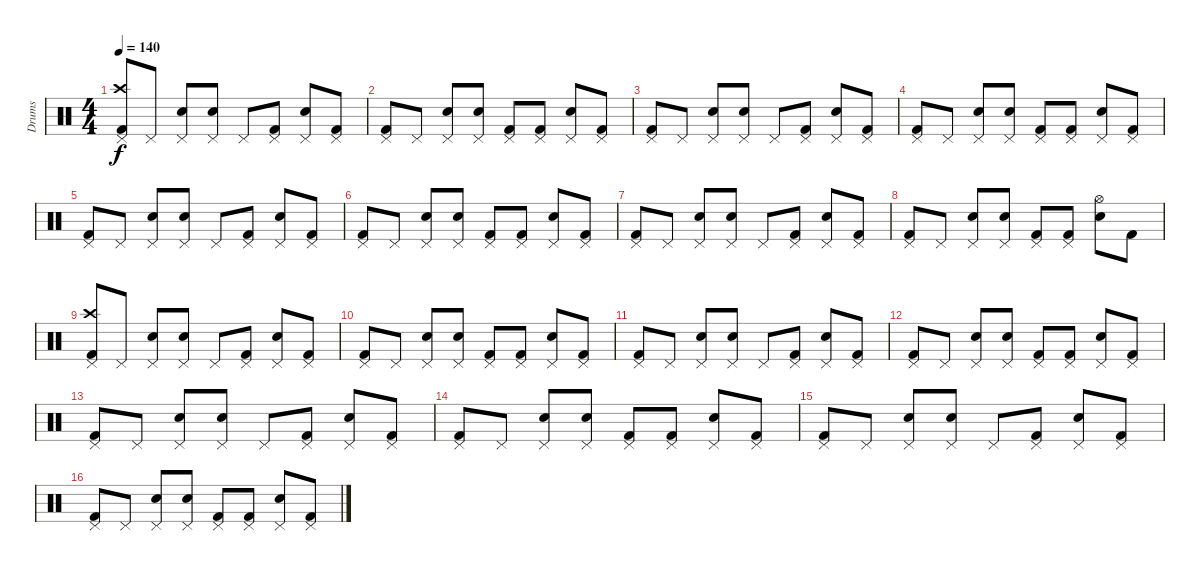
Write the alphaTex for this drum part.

\track ("Drums" "Drums") {instrument percussion}
\staff {score}
\articulation defaults
\ts (4 4)
\tempo 140
\clef neutral
\ks c
("Pedal Hi-Hat (hit)" "Crash high (hit)" "Kick (hit) 2").8{dy f} "Pedal Hi-Hat (hit)".8 ("Pedal Hi-Hat (hit)" "Electric Snare (hit)").8 ("Pedal Hi-Hat (hit)" "Electric Snare (hit)").8 "Pedal Hi-Hat (hit)".8 ("Pedal Hi-Hat (hit)" "Kick (hit) 2").8 ("Pedal Hi-Hat (hit)" "Electric Snare (hit)").8 ("Pedal Hi-Hat (hit)" "Kick (hit) 2").8 |
("Pedal Hi-Hat (hit)" "Kick (hit) 2").8 "Pedal Hi-Hat (hit)".8 ("Pedal Hi-Hat (hit)" "Electric Snare (hit)").8 ("Pedal Hi-Hat (hit)" "Electric Snare (hit)").8 ("Pedal Hi-Hat (hit)" "Kick (hit) 2").8 ("Pedal Hi-Hat (hit)" "Kick (hit) 2").8 ("Pedal Hi-Hat (hit)" "Electric Snare (hit)").8 ("Pedal Hi-Hat (hit)" "Kick (hit) 2").8 |
("Pedal Hi-Hat (hit)" "Kick (hit) 2").8 "Pedal Hi-Hat (hit)".8 ("Pedal Hi-Hat (hit)" "Electric Snare (hit)").8 ("Pedal Hi-Hat (hit)" "Electric Snare (hit)").8 "Pedal Hi-Hat (hit)".8 ("Pedal Hi-Hat (hit)" "Kick (hit) 2").8 ("Pedal Hi-Hat (hit)" "Electric Snare (hit)").8 ("Pedal Hi-Hat (hit)" "Kick (hit) 2").8 |
("Pedal Hi-Hat (hit)" "Kick (hit) 2").8 "Pedal Hi-Hat (hit)".8 ("Pedal Hi-Hat (hit)" "Electric Snare (hit)").8 ("Pedal Hi-Hat (hit)" "Electric Snare (hit)").8 ("Pedal Hi-Hat (hit)" "Kick (hit) 2").8 ("Pedal Hi-Hat (hit)" "Kick (hit) 2").8 ("Pedal Hi-Hat (hit)" "Electric Snare (hit)").8 ("Pedal Hi-Hat (hit)" "Kick (hit) 2").8 |
("Pedal Hi-Hat (hit)" "Kick (hit) 2").8 "Pedal Hi-Hat (hit)".8 ("Pedal Hi-Hat (hit)" "Electric Snare (hit)").8 ("Pedal Hi-Hat (hit)" "Electric Snare (hit)").8 "Pedal Hi-Hat (hit)".8 ("Pedal Hi-Hat (hit)" "Kick (hit) 2").8 ("Pedal Hi-Hat (hit)" "Electric Snare (hit)").8 ("Pedal Hi-Hat (hit)" "Kick (hit) 2").8 |
("Pedal Hi-Hat (hit)" "Kick (hit) 2").8 "Pedal Hi-Hat (hit)".8 ("Pedal Hi-Hat (hit)" "Electric Snare (hit)").8 ("Pedal Hi-Hat (hit)" "Electric Snare (hit)").8 ("Pedal Hi-Hat (hit)" "Kick (hit) 2").8 ("Pedal Hi-Hat (hit)" "Kick (hit) 2").8 ("Pedal Hi-Hat (hit)" "Electric Snare (hit)").8 ("Pedal Hi-Hat (hit)" "Kick (hit) 2").8 |
("Pedal Hi-Hat (hit)" "Kick (hit) 2").8 "Pedal Hi-Hat (hit)".8 ("Pedal Hi-Hat (hit)" "Electric Snare (hit)").8 ("Pedal Hi-Hat (hit)" "Electric Snare (hit)").8 "Pedal Hi-Hat (hit)".8 ("Pedal Hi-Hat (hit)" "Kick (hit) 2").8 ("Pedal Hi-Hat (hit)" "Electric Snare (hit)").8 ("Pedal Hi-Hat (hit)" "Kick (hit) 2").8 |
("Pedal Hi-Hat (hit)" "Kick (hit) 2").8 "Pedal Hi-Hat (hit)".8 ("Pedal Hi-Hat (hit)" "Electric Snare (hit)").8 ("Pedal Hi-Hat (hit)" "Electric Snare (hit)").8 ("Pedal Hi-Hat (hit)" "Kick (hit) 2").8 ("Pedal Hi-Hat (hit)" "Kick (hit) 2").8 ("Hi-Hat (open)" "Electric Snare (hit)").8 "Kick (hit) 2".8 |
("Pedal Hi-Hat (hit)" "Crash high (hit)" "Kick (hit) 2").8 "Pedal Hi-Hat (hit)".8 ("Pedal Hi-Hat (hit)" "Electric Snare (hit)").8 ("Pedal Hi-Hat (hit)" "Electric Snare (hit)").8 "Pedal Hi-Hat (hit)".8 ("Pedal Hi-Hat (hit)" "Kick (hit) 2").8 ("Pedal Hi-Hat (hit)" "Electric Snare (hit)").8 ("Pedal Hi-Hat (hit)" "Kick (hit) 2").8 |
("Pedal Hi-Hat (hit)" "Kick (hit) 2").8 "Pedal Hi-Hat (hit)".8 ("Pedal Hi-Hat (hit)" "Electric Snare (hit)").8 ("Pedal Hi-Hat (hit)" "Electric Snare (hit)").8 ("Pedal Hi-Hat (hit)" "Kick (hit) 2").8 ("Pedal Hi-Hat (hit)" "Kick (hit) 2").8 ("Pedal Hi-Hat (hit)" "Electric Snare (hit)").8 ("Pedal Hi-Hat (hit)" "Kick (hit) 2").8 |
("Pedal Hi-Hat (hit)" "Kick (hit) 2").8 "Pedal Hi-Hat (hit)".8 ("Pedal Hi-Hat (hit)" "Electric Snare (hit)").8 ("Pedal Hi-Hat (hit)" "Electric Snare (hit)").8 "Pedal Hi-Hat (hit)".8 ("Pedal Hi-Hat (hit)" "Kick (hit) 2").8 ("Pedal Hi-Hat (hit)" "Electric Snare (hit)").8 ("Pedal Hi-Hat (hit)" "Kick (hit) 2").8 |
("Pedal Hi-Hat (hit)" "Kick (hit) 2").8 "Pedal Hi-Hat (hit)".8 ("Pedal Hi-Hat (hit)" "Electric Snare (hit)").8 ("Pedal Hi-Hat (hit)" "Electric Snare (hit)").8 ("Pedal Hi-Hat (hit)" "Kick (hit) 2").8 ("Pedal Hi-Hat (hit)" "Kick (hit) 2").8 ("Pedal Hi-Hat (hit)" "Electric Snare (hit)").8 ("Pedal Hi-Hat (hit)" "Kick (hit) 2").8 |
("Pedal Hi-Hat (hit)" "Kick (hit) 2").8 "Pedal Hi-Hat (hit)".8 ("Pedal Hi-Hat (hit)" "Electric Snare (hit)").8 ("Pedal Hi-Hat (hit)" "Electric Snare (hit)").8 "Pedal Hi-Hat (hit)".8 ("Pedal Hi-Hat (hit)" "Kick (hit) 2").8 ("Pedal Hi-Hat (hit)" "Electric Snare (hit)").8 ("Pedal Hi-Hat (hit)" "Kick (hit) 2").8 |
("Pedal Hi-Hat (hit)" "Kick (hit) 2").8 "Pedal Hi-Hat (hit)".8 ("Pedal Hi-Hat (hit)" "Electric Snare (hit)").8 ("Pedal Hi-Hat (hit)" "Electric Snare (hit)").8 ("Pedal Hi-Hat (hit)" "Kick (hit) 2").8 ("Pedal Hi-Hat (hit)" "Kick (hit) 2").8 ("Pedal Hi-Hat (hit)" "Electric Snare (hit)").8 ("Pedal Hi-Hat (hit)" "Kick (hit) 2").8 |
("Pedal Hi-Hat (hit)" "Kick (hit) 2").8 "Pedal Hi-Hat (hit)".8 ("Pedal Hi-Hat (hit)" "Electric Snare (hit)").8 ("Pedal Hi-Hat (hit)" "Electric Snare (hit)").8 "Pedal Hi-Hat (hit)".8 ("Pedal Hi-Hat (hit)" "Kick (hit) 2").8 ("Pedal Hi-Hat (hit)" "Electric Snare (hit)").8 ("Pedal Hi-Hat (hit)" "Kick (hit) 2").8 |
("Pedal Hi-Hat (hit)" "Kick (hit) 2").8 "Pedal Hi-Hat (hit)".8 ("Pedal Hi-Hat (hit)" "Electric Snare (hit)").8 ("Pedal Hi-Hat (hit)" "Electric Snare (hit)").8 ("Pedal Hi-Hat (hit)" "Kick (hit) 2").8 ("Pedal Hi-Hat (hit)" "Kick (hit) 2").8 ("Pedal Hi-Hat (hit)" "Electric Snare (hit)").8 ("Pedal Hi-Hat (hit)" "Kick (hit) 2").8
